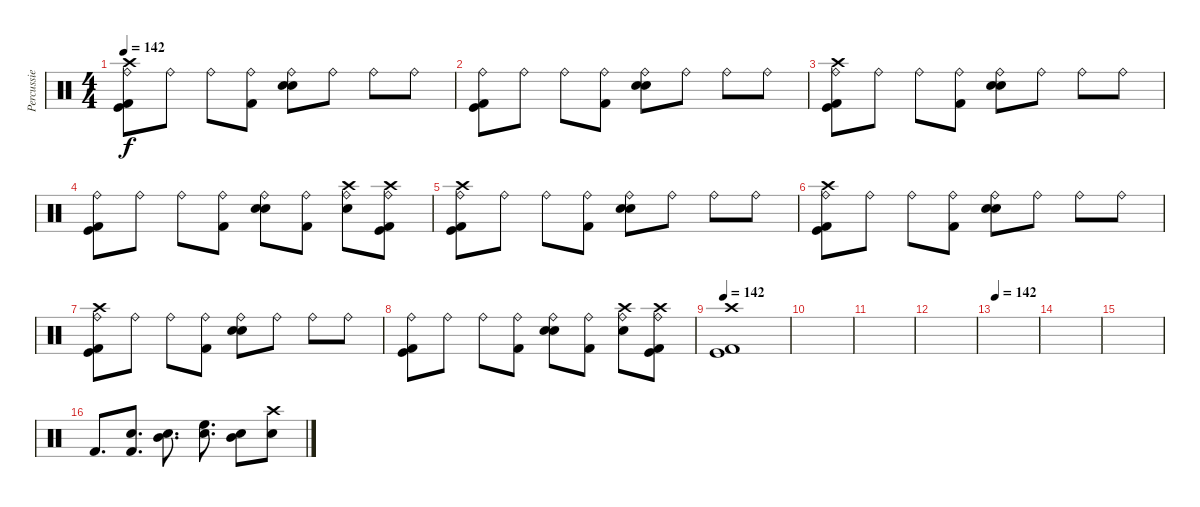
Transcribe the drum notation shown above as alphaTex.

\track ("Percussie" "Percussie") {instrument percussion}
\staff {score}
\articulation defaults
\ts (4 4)
\tempo 142
\clef neutral
\ks c
("Kick (hit) 2" "Ride (bell)" "Kick (hit)" "Crash high (hit)").8{dy f} "Ride (bell)".8 "Ride (bell)".8 ("Kick (hit) 2" "Ride (bell)").8 ("Electric Snare (hit)" "Ride (bell)" "Snare (hit) 2").8 "Ride (bell)".8 "Ride (bell)".8 "Ride (bell)".8 |
("Kick (hit) 2" "Ride (bell)" "Kick (hit)").8 "Ride (bell)".8 "Ride (bell)".8 ("Kick (hit) 2" "Ride (bell)").8 ("Electric Snare (hit)" "Ride (bell)" "Snare (hit) 2").8 "Ride (bell)".8 "Ride (bell)".8 "Ride (bell)".8 |
("Kick (hit) 2" "Ride (bell)" "Kick (hit)" "Crash high (hit)").8 "Ride (bell)".8 "Ride (bell)".8 ("Kick (hit) 2" "Ride (bell)").8 ("Electric Snare (hit)" "Ride (bell)" "Snare (hit) 2").8 "Ride (bell)".8 "Ride (bell)".8 "Ride (bell)".8 |
("Kick (hit) 2" "Ride (bell)" "Kick (hit)").8 "Ride (bell)".8 "Ride (bell)".8 ("Kick (hit) 2" "Ride (bell)").8 ("Electric Snare (hit)" "Ride (bell)" "Snare (hit) 2").8 ("Kick (hit) 2" "Ride (bell)").8 ("Ride (bell)" "Electric Snare (hit)" "Crash high (hit)").8 ("Kick (hit)" "Ride (bell)" "Kick (hit) 2" "Crash high (hit)").8 |
("Kick (hit) 2" "Ride (bell)" "Kick (hit)" "Crash high (hit)").8 "Ride (bell)".8 "Ride (bell)".8 ("Kick (hit) 2" "Ride (bell)").8 ("Electric Snare (hit)" "Ride (bell)" "Snare (hit) 2").8 "Ride (bell)".8 "Ride (bell)".8 "Ride (bell)".8 |
("Kick (hit) 2" "Ride (bell)" "Kick (hit)" "Crash high (hit)").8 "Ride (bell)".8 "Ride (bell)".8 ("Kick (hit) 2" "Ride (bell)").8 ("Electric Snare (hit)" "Ride (bell)" "Snare (hit) 2").8 "Ride (bell)".8 "Ride (bell)".8 "Ride (bell)".8 |
("Kick (hit) 2" "Ride (bell)" "Kick (hit)" "Crash high (hit)").8 "Ride (bell)".8 "Ride (bell)".8 ("Kick (hit) 2" "Ride (bell)").8 ("Electric Snare (hit)" "Ride (bell)" "Snare (hit) 2").8 "Ride (bell)".8 "Ride (bell)".8 "Ride (bell)".8 |
("Kick (hit) 2" "Ride (bell)" "Kick (hit)").8 "Ride (bell)".8 "Ride (bell)".8 ("Kick (hit) 2" "Ride (bell)").8 ("Electric Snare (hit)" "Ride (bell)" "Snare (hit) 2").8 ("Kick (hit) 2" "Ride (bell)").8 ("Ride (bell)" "Electric Snare (hit)" "Crash high (hit)").8 ("Kick (hit)" "Ride (bell)" "Kick (hit) 2" "Crash high (hit)").8 |
\tempo 142
("Kick (hit) 2" "Kick (hit)" "Crash high (hit)").1 |
|
|
|
\tempo 142
|
|
|
"Kick (hit) 2".8{d} ("Kick (hit) 2" "Electric Snare (hit)").8{d} ("Mid Tom (hit)" "Electric Snare (hit)").8{d} ("High Floor Tom (hit)" "Electric Snare (hit)").8{d} ("Mid Tom (hit)" "Electric Snare (hit)").8 ("Crash high (hit)" "Electric Snare (hit)").8
